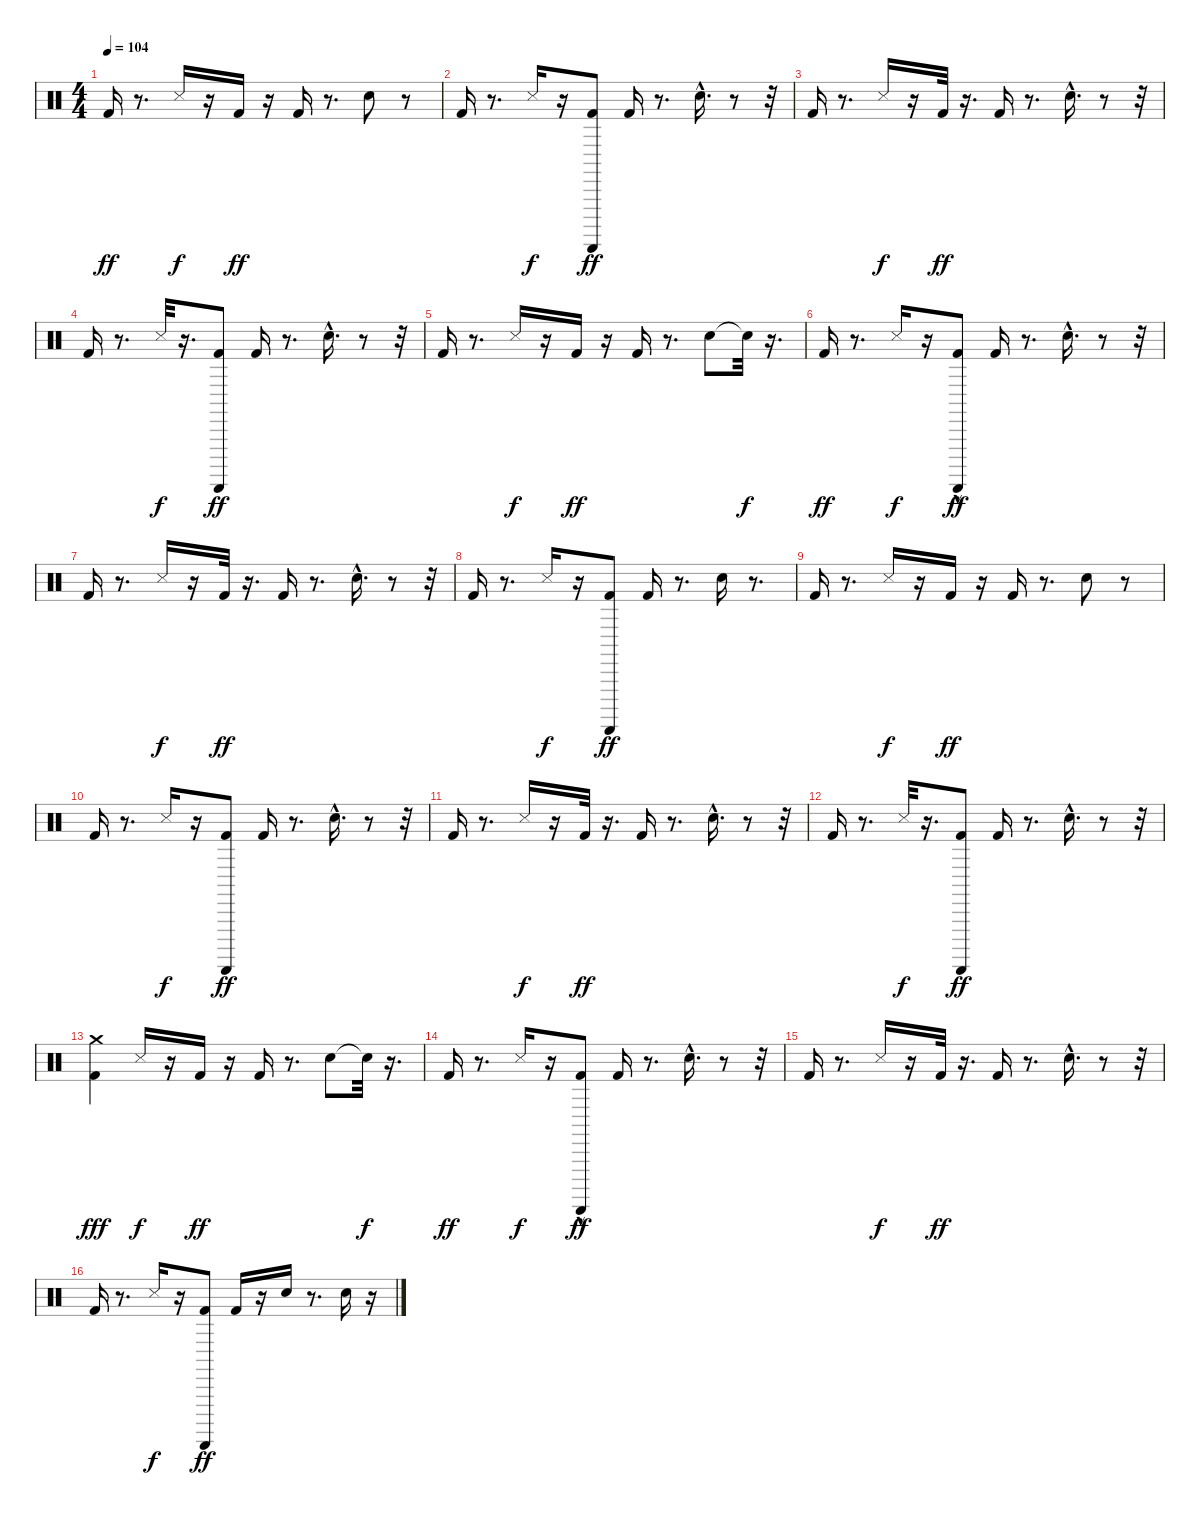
\track "" {instrument percussion}
\staff {score}
\articulation defaults
\ts (4 4)
\tempo 104
\clef neutral
\ks c "Kick (hit) 2".16{dy ff}
r.8{d} "Snare (side stick) 3".16{dy f} r.16 "Kick (hit) 2".16{dy ff} r.16 "Kick (hit) 2".16 r.8{d} "Snare (hit) 2".8 r.8 |
"Kick (hit) 2".16 r.8{d} "Snare (side stick) 3".16{dy f} r.16 ("Kick (hit) 2" "Guiro (scrap-return)").8{dy ff} "Kick (hit) 2".16 r.8{d} "Snare (hit) 2"{hac}.16{d} r.8 r.32 |
"Kick (hit) 2".16 r.8{d} "Snare (side stick) 3".16{dy f} r.16 "Kick (hit) 2".32{dy ff} r.16{d} "Kick (hit) 2".16 r.8{d} "Snare (hit) 2"{hac}.16{d} r.8 r.32 |
"Kick (hit) 2".16 r.8{d} "Snare (side stick) 3".32{dy f} r.16{d} ("Kick (hit) 2" "Guiro (scrap-return)").8{dy ff} "Kick (hit) 2".16 r.8{d} "Snare (hit) 2"{hac}.16{d} r.8 r.32 |
"Kick (hit) 2".16 r.8{d} "Snare (side stick) 3".16{dy f} r.16 "Kick (hit) 2".16{dy ff} r.16 "Kick (hit) 2".16 r.8{d} "Snare (hit) 2".8 "Snare (hit)"{t}.32{dy f} r.16{d} |
"Kick (hit) 2".16{dy ff} r.8{d} "Snare (side stick) 3".16{dy f} r.16 ("Guiro (scrap-return)"{hac} "Kick (hit) 2").8{dy ff} "Kick (hit) 2".16 r.8{d} "Snare (hit) 2"{hac}.16{d} r.8 r.32 |
"Kick (hit) 2".16 r.8{d} "Snare (side stick) 3".16{dy f} r.16 "Kick (hit) 2".32{dy ff} r.16{d} "Kick (hit) 2".16 r.8{d} "Snare (hit) 2"{hac}.16{d} r.8 r.32 |
"Kick (hit) 2".16 r.8{d} "Snare (side stick) 3".16{dy f} r.16 ("Guiro (scrap-return)" "Kick (hit) 2").8{dy ff} "Kick (hit) 2".16 r.8{d} "Snare (hit) 2".16 r.8{d} |
"Kick (hit) 2".16 r.8{d} "Snare (side stick) 3".16{dy f} r.16 "Kick (hit) 2".16{dy ff} r.16 "Kick (hit) 2".16 r.8{d} "Snare (hit) 2".8 r.8 |
"Kick (hit) 2".16 r.8{d} "Snare (side stick) 3".16{dy f} r.16 ("Guiro (scrap-return)" "Kick (hit) 2").8{dy ff} "Kick (hit) 2".16 r.8{d} "Snare (hit) 2"{hac}.16{d} r.8 r.32 |
"Kick (hit) 2".16 r.8{d} "Snare (side stick) 3".16{dy f} r.16 "Kick (hit) 2".32{dy ff} r.16{d} "Kick (hit) 2".16 r.8{d} "Snare (hit) 2"{hac}.16{d} r.8 r.32 |
"Kick (hit) 2".16 r.8{d} "Snare (side stick) 3".32{dy f} r.16{d} ("Guiro (scrap-return)" "Kick (hit) 2").8{dy ff} "Kick (hit) 2".16 r.8{d} "Snare (hit) 2"{hac}.16{d} r.8 r.32 |
("Kick (hit) 2" "Crash medium (hit)").4{dy fff} "Snare (side stick) 3".16{dy f} r.16 "Kick (hit) 2".16{dy ff} r.16 "Kick (hit) 2".16 r.8{d} "Snare (hit) 2".8 "Snare (hit)"{t}.32{dy f} r.16{d} |
"Kick (hit) 2".16{dy ff} r.8{d} "Snare (side stick) 3".16{dy f} r.16 ("Kick (hit) 2" "Guiro (scrap-return)"{hac}).8{dy ff} "Kick (hit) 2".16 r.8{d} "Snare (hit) 2"{hac}.16{d} r.8 r.32 |
"Kick (hit) 2".16 r.8{d} "Snare (side stick) 3".16{dy f} r.16 "Kick (hit) 2".32{dy ff} r.16{d} "Kick (hit) 2".16 r.8{d} "Snare (hit) 2"{hac}.16{d} r.8 r.32 |
"Kick (hit) 2".16 r.8{d} "Snare (side stick) 3".16{dy f} r.16 ("Kick (hit) 2" "Guiro (scrap-return)").8{dy ff} "Kick (hit) 2".16 r.16 "Snare (hit) 2".16 r.8{d} "Snare (hit) 2".16 r.16
